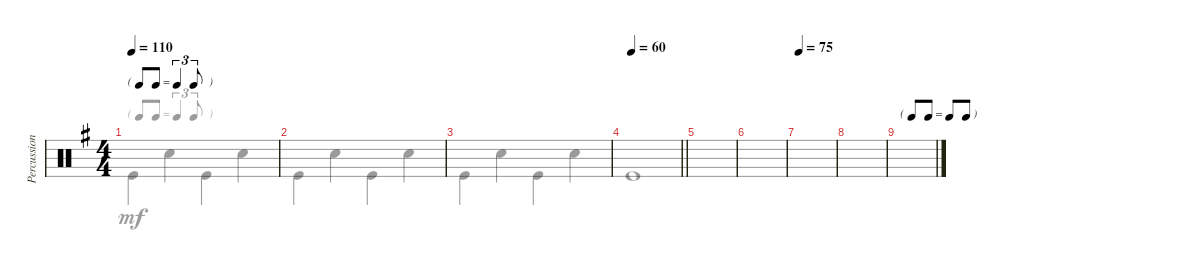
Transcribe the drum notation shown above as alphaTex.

\track ("Percussion" "Percussion") {instrument percussion}
\staff {score}
\articulation defaults
\voice
\ts (4 4)
\tf triplet8th
\tempo 110
\clef neutral
\ks eminor
|
|
|
\tempo 60
\barLineRight lightlight
|
|
|
\tempo 75
|
|
\tf none
|
|
|
\voice
\clef neutral
\ks eminor "Kick (hit)".4{dy mf} "Snare (hit) 2".4 "Kick (hit)".4 "Snare (hit) 2".4
|
"Kick (hit)".4 "Snare (hit) 2".4 "Kick (hit)".4 "Snare (hit) 2".4 |
"Kick (hit)".4 "Snare (hit) 2".4 "Kick (hit)".4 "Snare (hit) 2".4 |
\barLineRight lightlight "Kick (hit)".1
|
|
|
|
|
|
|
|
